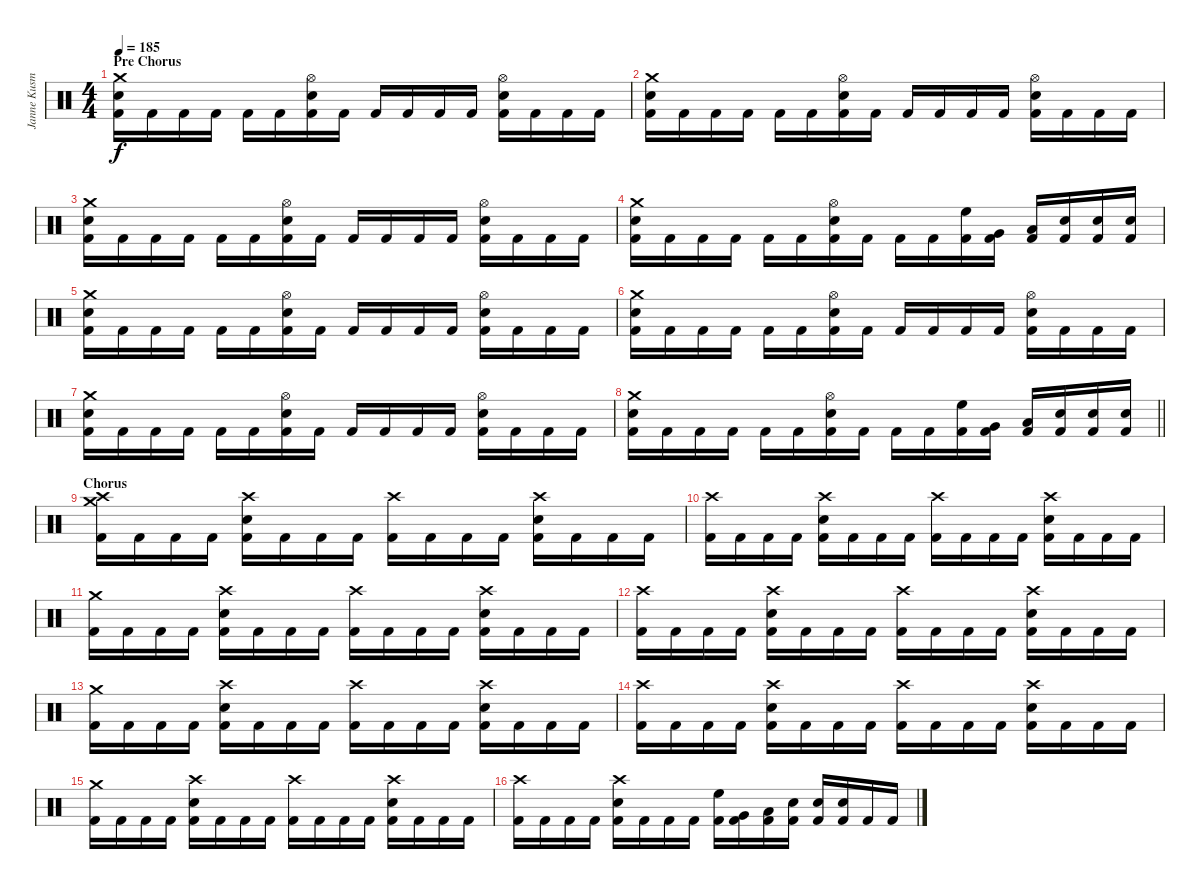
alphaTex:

\track ("Janne Kusmin" "Janne Kusm") {instrument percussion}
\staff {score}
\articulation defaults
\ts (4 4)
\section ("" "Pre Chorus")
\tempo 185
\clef neutral
\ks c
("Crash medium (hit)" "Electric Snare (hit)" "Kick (hit) 2").16{dy f} "Kick (hit) 2".16 "Kick (hit) 2".16 "Kick (hit) 2".16 "Kick (hit) 2".16 "Kick (hit) 2".16 ("Hi-Hat (open)" "Electric Snare (hit)" "Kick (hit) 2").16 "Kick (hit) 2".16 "Kick (hit) 2".16 "Kick (hit) 2".16 "Kick (hit) 2".16 "Kick (hit) 2".16 ("Hi-Hat (open)" "Electric Snare (hit)" "Kick (hit) 2").16 "Kick (hit) 2".16 "Kick (hit) 2".16 "Kick (hit) 2".16 |
("Crash medium (hit)" "Electric Snare (hit)" "Kick (hit) 2").16 "Kick (hit) 2".16 "Kick (hit) 2".16 "Kick (hit) 2".16 "Kick (hit) 2".16 "Kick (hit) 2".16 ("Hi-Hat (open)" "Electric Snare (hit)" "Kick (hit) 2").16 "Kick (hit) 2".16 "Kick (hit) 2".16 "Kick (hit) 2".16 "Kick (hit) 2".16 "Kick (hit) 2".16 ("Hi-Hat (open)" "Electric Snare (hit)" "Kick (hit) 2").16 "Kick (hit) 2".16 "Kick (hit) 2".16 "Kick (hit) 2".16 |
("Crash medium (hit)" "Electric Snare (hit)" "Kick (hit) 2").16 "Kick (hit) 2".16 "Kick (hit) 2".16 "Kick (hit) 2".16 "Kick (hit) 2".16 "Kick (hit) 2".16 ("Hi-Hat (open)" "Electric Snare (hit)" "Kick (hit) 2").16 "Kick (hit) 2".16 "Kick (hit) 2".16 "Kick (hit) 2".16 "Kick (hit) 2".16 "Kick (hit) 2".16 ("Hi-Hat (open)" "Electric Snare (hit)" "Kick (hit) 2").16 "Kick (hit) 2".16 "Kick (hit) 2".16 "Kick (hit) 2".16 |
("Crash medium (hit)" "Electric Snare (hit)" "Kick (hit) 2").16 "Kick (hit) 2".16 "Kick (hit) 2".16 "Kick (hit) 2".16 "Kick (hit) 2".16 "Kick (hit) 2".16 ("Hi-Hat (open)" "Electric Snare (hit)" "Kick (hit) 2").16 "Kick (hit) 2".16 "Kick (hit) 2".16 "Kick (hit) 2".16 ("High Floor Tom (hit)" "Kick (hit) 2").16 ("Very Low Tom (hit)" "Kick (hit) 2").16 ("Low Floor Tom (hit)" "Kick (hit) 2").16 ("Electric Snare (hit)" "Kick (hit) 2").16 ("Electric Snare (hit)" "Kick (hit) 2").16 ("Electric Snare (hit)" "Kick (hit) 2").16 |
("Crash medium (hit)" "Electric Snare (hit)" "Kick (hit) 2").16 "Kick (hit) 2".16 "Kick (hit) 2".16 "Kick (hit) 2".16 "Kick (hit) 2".16 "Kick (hit) 2".16 ("Hi-Hat (open)" "Electric Snare (hit)" "Kick (hit) 2").16 "Kick (hit) 2".16 "Kick (hit) 2".16 "Kick (hit) 2".16 "Kick (hit) 2".16 "Kick (hit) 2".16 ("Hi-Hat (open)" "Electric Snare (hit)" "Kick (hit) 2").16 "Kick (hit) 2".16 "Kick (hit) 2".16 "Kick (hit) 2".16 |
("Crash medium (hit)" "Electric Snare (hit)" "Kick (hit) 2").16 "Kick (hit) 2".16 "Kick (hit) 2".16 "Kick (hit) 2".16 "Kick (hit) 2".16 "Kick (hit) 2".16 ("Hi-Hat (open)" "Electric Snare (hit)" "Kick (hit) 2").16 "Kick (hit) 2".16 "Kick (hit) 2".16 "Kick (hit) 2".16 "Kick (hit) 2".16 "Kick (hit) 2".16 ("Hi-Hat (open)" "Electric Snare (hit)" "Kick (hit) 2").16 "Kick (hit) 2".16 "Kick (hit) 2".16 "Kick (hit) 2".16 |
("Crash medium (hit)" "Electric Snare (hit)" "Kick (hit) 2").16 "Kick (hit) 2".16 "Kick (hit) 2".16 "Kick (hit) 2".16 "Kick (hit) 2".16 "Kick (hit) 2".16 ("Hi-Hat (open)" "Electric Snare (hit)" "Kick (hit) 2").16 "Kick (hit) 2".16 "Kick (hit) 2".16 "Kick (hit) 2".16 "Kick (hit) 2".16 "Kick (hit) 2".16 ("Hi-Hat (open)" "Electric Snare (hit)" "Kick (hit) 2").16 "Kick (hit) 2".16 "Kick (hit) 2".16 "Kick (hit) 2".16 |
\barLineRight lightlight
("Crash medium (hit)" "Electric Snare (hit)" "Kick (hit) 2").16 "Kick (hit) 2".16 "Kick (hit) 2".16 "Kick (hit) 2".16 "Kick (hit) 2".16 "Kick (hit) 2".16 ("Hi-Hat (open)" "Electric Snare (hit)" "Kick (hit) 2").16 "Kick (hit) 2".16 "Kick (hit) 2".16 "Kick (hit) 2".16 ("High Floor Tom (hit)" "Kick (hit) 2").16 ("Very Low Tom (hit)" "Kick (hit) 2").16 ("Low Floor Tom (hit)" "Kick (hit) 2").16 ("Electric Snare (hit)" "Kick (hit) 2").16 ("Electric Snare (hit)" "Kick (hit) 2").16 ("Electric Snare (hit)" "Kick (hit) 2").16 |
\section ("" "Chorus")
("Crash medium (hit)" "Crash high (hit)" "Kick (hit) 2").16 "Kick (hit) 2".16 "Kick (hit) 2".16 "Kick (hit) 2".16 ("Crash high (hit)" "Electric Snare (hit)" "Kick (hit) 2").16 "Kick (hit) 2".16 "Kick (hit) 2".16 "Kick (hit) 2".16 ("Crash high (hit)" "Kick (hit) 2").16 "Kick (hit) 2".16 "Kick (hit) 2".16 "Kick (hit) 2".16 ("Crash high (hit)" "Electric Snare (hit)" "Kick (hit) 2").16 "Kick (hit) 2".16 "Kick (hit) 2".16 "Kick (hit) 2".16 |
("Crash high (hit)" "Kick (hit) 2").16 "Kick (hit) 2".16 "Kick (hit) 2".16 "Kick (hit) 2".16 ("Crash high (hit)" "Electric Snare (hit)" "Kick (hit) 2").16 "Kick (hit) 2".16 "Kick (hit) 2".16 "Kick (hit) 2".16 ("Crash high (hit)" "Kick (hit) 2").16 "Kick (hit) 2".16 "Kick (hit) 2".16 "Kick (hit) 2".16 ("Crash high (hit)" "Electric Snare (hit)" "Kick (hit) 2").16 "Kick (hit) 2".16 "Kick (hit) 2".16 "Kick (hit) 2".16 |
("Crash medium (hit)" "Kick (hit) 2").16 "Kick (hit) 2".16 "Kick (hit) 2".16 "Kick (hit) 2".16 ("Crash high (hit)" "Electric Snare (hit)" "Kick (hit) 2").16 "Kick (hit) 2".16 "Kick (hit) 2".16 "Kick (hit) 2".16 ("Crash high (hit)" "Kick (hit) 2").16 "Kick (hit) 2".16 "Kick (hit) 2".16 "Kick (hit) 2".16 ("Crash high (hit)" "Electric Snare (hit)" "Kick (hit) 2").16 "Kick (hit) 2".16 "Kick (hit) 2".16 "Kick (hit) 2".16 |
("Crash high (hit)" "Kick (hit) 2").16 "Kick (hit) 2".16 "Kick (hit) 2".16 "Kick (hit) 2".16 ("Crash high (hit)" "Electric Snare (hit)" "Kick (hit) 2").16 "Kick (hit) 2".16 "Kick (hit) 2".16 "Kick (hit) 2".16 ("Crash high (hit)" "Kick (hit) 2").16 "Kick (hit) 2".16 "Kick (hit) 2".16 "Kick (hit) 2".16 ("Crash high (hit)" "Electric Snare (hit)" "Kick (hit) 2").16 "Kick (hit) 2".16 "Kick (hit) 2".16 "Kick (hit) 2".16 |
("Crash medium (hit)" "Kick (hit) 2").16 "Kick (hit) 2".16 "Kick (hit) 2".16 "Kick (hit) 2".16 ("Crash high (hit)" "Electric Snare (hit)" "Kick (hit) 2").16 "Kick (hit) 2".16 "Kick (hit) 2".16 "Kick (hit) 2".16 ("Crash high (hit)" "Kick (hit) 2").16 "Kick (hit) 2".16 "Kick (hit) 2".16 "Kick (hit) 2".16 ("Crash high (hit)" "Electric Snare (hit)" "Kick (hit) 2").16 "Kick (hit) 2".16 "Kick (hit) 2".16 "Kick (hit) 2".16 |
("Crash high (hit)" "Kick (hit) 2").16 "Kick (hit) 2".16 "Kick (hit) 2".16 "Kick (hit) 2".16 ("Crash high (hit)" "Electric Snare (hit)" "Kick (hit) 2").16 "Kick (hit) 2".16 "Kick (hit) 2".16 "Kick (hit) 2".16 ("Crash high (hit)" "Kick (hit) 2").16 "Kick (hit) 2".16 "Kick (hit) 2".16 "Kick (hit) 2".16 ("Crash high (hit)" "Electric Snare (hit)" "Kick (hit) 2").16 "Kick (hit) 2".16 "Kick (hit) 2".16 "Kick (hit) 2".16 |
("Crash medium (hit)" "Kick (hit) 2").16 "Kick (hit) 2".16 "Kick (hit) 2".16 "Kick (hit) 2".16 ("Crash high (hit)" "Electric Snare (hit)" "Kick (hit) 2").16 "Kick (hit) 2".16 "Kick (hit) 2".16 "Kick (hit) 2".16 ("Crash high (hit)" "Kick (hit) 2").16 "Kick (hit) 2".16 "Kick (hit) 2".16 "Kick (hit) 2".16 ("Crash high (hit)" "Electric Snare (hit)" "Kick (hit) 2").16 "Kick (hit) 2".16 "Kick (hit) 2".16 "Kick (hit) 2".16 |
("Crash high (hit)" "Kick (hit) 2").16 "Kick (hit) 2".16 "Kick (hit) 2".16 "Kick (hit) 2".16 ("Crash high (hit)" "Electric Snare (hit)" "Kick (hit) 2").16 "Kick (hit) 2".16 "Kick (hit) 2".16 "Kick (hit) 2".16 ("High Floor Tom (hit)" "Kick (hit) 2").16 ("Very Low Tom (hit)" "Kick (hit) 2").16 ("Low Floor Tom (hit)" "Kick (hit) 2").16 ("Electric Snare (hit)" "Kick (hit) 2").16 ("Electric Snare (hit)" "Kick (hit) 2").16 ("Electric Snare (hit)" "Kick (hit) 2").16 "Kick (hit) 2".16 "Kick (hit) 2".16
